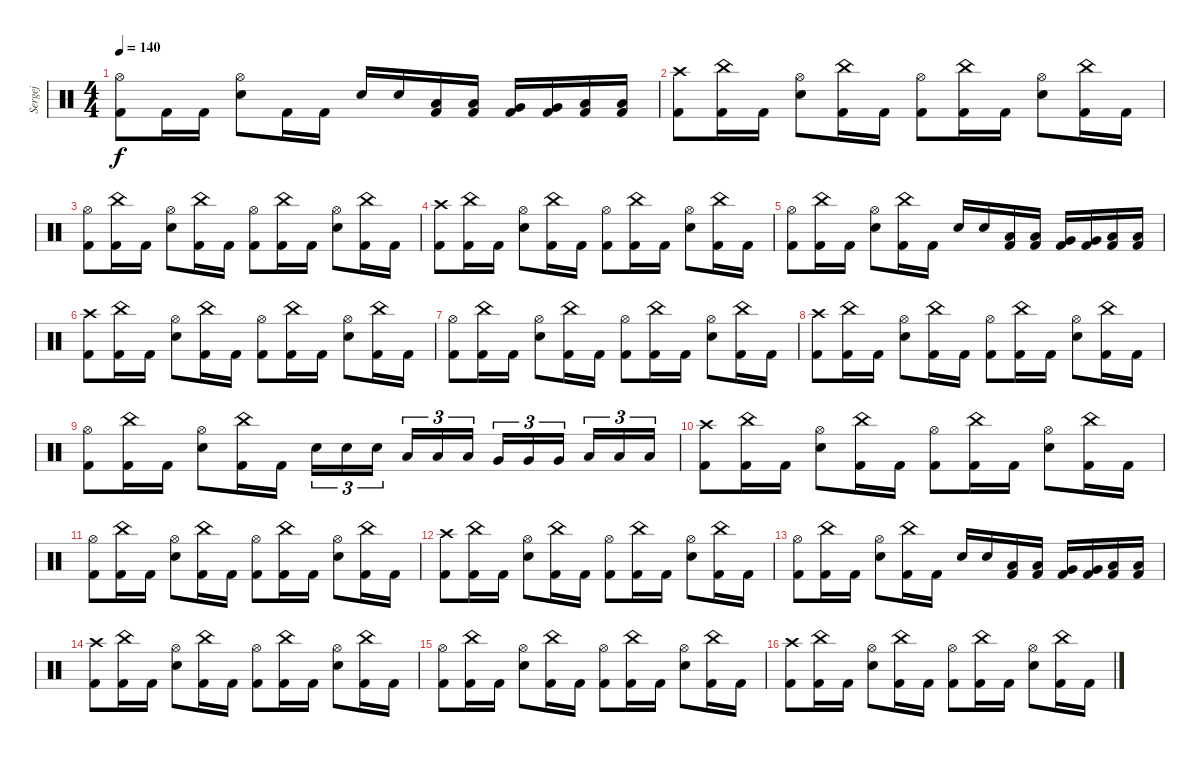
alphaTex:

\track ("Sergej" "Sergej") {instrument percussion}
\staff {score}
\articulation defaults
\ts (4 4)
\tempo 140
\clef neutral
\ks c
("Hi-Hat (open)" "Kick (hit) 2").8{dy f} "Kick (hit) 2".16 "Kick (hit) 2".16 ("Hi-Hat (open)" "Snare (hit) 2").8 "Kick (hit) 2".16 "Kick (hit) 2".16 "Snare (hit) 2".16 "Snare (hit) 2".16 ("Kick (hit) 2" "Low Tom (hit)").16 ("Kick (hit) 2" "Low Tom (hit)").16 ("Kick (hit) 2" "Very Low Tom (hit)").16 ("Kick (hit) 2" "Very Low Tom (hit)").16 ("Kick (hit) 2" "Low Floor Tom (hit)").16 ("Kick (hit) 2" "Low Floor Tom (hit)").16 |
("Crash high (hit)" "Kick (hit) 2").8 ("China (hit)" "Kick (hit) 2").16 "Kick (hit) 2".16 ("Hi-Hat (open)" "Snare (hit) 2").8 ("China (hit)" "Kick (hit) 2").16 "Kick (hit) 2".16 ("Hi-Hat (open)" "Kick (hit) 2").8 ("China (hit)" "Kick (hit) 2").16 "Kick (hit) 2".16 ("Hi-Hat (open)" "Snare (hit) 2").8 ("China (hit)" "Kick (hit) 2").16 "Kick (hit) 2".16 |
("Hi-Hat (open)" "Kick (hit) 2").8 ("China (hit)" "Kick (hit) 2").16 "Kick (hit) 2".16 ("Hi-Hat (open)" "Snare (hit) 2").8 ("China (hit)" "Kick (hit) 2").16 "Kick (hit) 2".16 ("Hi-Hat (open)" "Kick (hit) 2").8 ("China (hit)" "Kick (hit) 2").16 "Kick (hit) 2".16 ("Hi-Hat (open)" "Snare (hit) 2").8 ("China (hit)" "Kick (hit) 2").16 "Kick (hit) 2".16 |
("Crash high (hit)" "Kick (hit) 2").8 ("China (hit)" "Kick (hit) 2").16 "Kick (hit) 2".16 ("Hi-Hat (open)" "Snare (hit) 2").8 ("China (hit)" "Kick (hit) 2").16 "Kick (hit) 2".16 ("Hi-Hat (open)" "Kick (hit) 2").8 ("China (hit)" "Kick (hit) 2").16 "Kick (hit) 2".16 ("Hi-Hat (open)" "Snare (hit) 2").8 ("China (hit)" "Kick (hit) 2").16 "Kick (hit) 2".16 |
("Hi-Hat (open)" "Kick (hit) 2").8 ("China (hit)" "Kick (hit) 2").16 "Kick (hit) 2".16 ("Hi-Hat (open)" "Snare (hit) 2").8 ("China (hit)" "Kick (hit) 2").16 "Kick (hit) 2".16 "Snare (hit) 2".16 "Snare (hit) 2".16 ("Kick (hit) 2" "Low Tom (hit)").16 ("Kick (hit) 2" "Low Tom (hit)").16 ("Kick (hit) 2" "Very Low Tom (hit)").16 ("Kick (hit) 2" "Very Low Tom (hit)").16 ("Kick (hit) 2" "Low Floor Tom (hit)").16 ("Kick (hit) 2" "Low Floor Tom (hit)").16 |
("Crash high (hit)" "Kick (hit) 2").8 ("China (hit)" "Kick (hit) 2").16 "Kick (hit) 2".16 ("Hi-Hat (open)" "Snare (hit) 2").8 ("China (hit)" "Kick (hit) 2").16 "Kick (hit) 2".16 ("Hi-Hat (open)" "Kick (hit) 2").8 ("China (hit)" "Kick (hit) 2").16 "Kick (hit) 2".16 ("Hi-Hat (open)" "Snare (hit) 2").8 ("China (hit)" "Kick (hit) 2").16 "Kick (hit) 2".16 |
("Hi-Hat (open)" "Kick (hit) 2").8 ("China (hit)" "Kick (hit) 2").16 "Kick (hit) 2".16 ("Hi-Hat (open)" "Snare (hit) 2").8 ("China (hit)" "Kick (hit) 2").16 "Kick (hit) 2".16 ("Hi-Hat (open)" "Kick (hit) 2").8 ("China (hit)" "Kick (hit) 2").16 "Kick (hit) 2".16 ("Hi-Hat (open)" "Snare (hit) 2").8 ("China (hit)" "Kick (hit) 2").16 "Kick (hit) 2".16 |
("Crash high (hit)" "Kick (hit) 2").8 ("China (hit)" "Kick (hit) 2").16 "Kick (hit) 2".16 ("Hi-Hat (open)" "Snare (hit) 2").8 ("China (hit)" "Kick (hit) 2").16 "Kick (hit) 2".16 ("Hi-Hat (open)" "Kick (hit) 2").8 ("China (hit)" "Kick (hit) 2").16 "Kick (hit) 2".16 ("Hi-Hat (open)" "Snare (hit) 2").8 ("China (hit)" "Kick (hit) 2").16 "Kick (hit) 2".16 |
("Hi-Hat (open)" "Kick (hit) 2").8 ("China (hit)" "Kick (hit) 2").16 "Kick (hit) 2".16 ("Hi-Hat (open)" "Snare (hit) 2").8 ("China (hit)" "Kick (hit) 2").16 "Kick (hit) 2".16 "Snare (hit) 2".16{tu (3 2)} "Snare (hit) 2".16{tu (3 2)} "Snare (hit) 2".16{tu (3 2)} "Low Tom (hit)".16{tu (3 2)} "Low Tom (hit)".16{tu (3 2)} "Low Tom (hit)".16{tu (3 2)} "Very Low Tom (hit)".16{tu (3 2)} "Very Low Tom (hit)".16{tu (3 2)} "Very Low Tom (hit)".16{tu (3 2)} "Low Floor Tom (hit)".16{tu (3 2)} "Low Floor Tom (hit)".16{tu (3 2)} "Low Floor Tom (hit)".16{tu (3 2)} |
("Crash high (hit)" "Kick (hit) 2").8 ("China (hit)" "Kick (hit) 2").16 "Kick (hit) 2".16 ("Hi-Hat (open)" "Snare (hit) 2").8 ("China (hit)" "Kick (hit) 2").16 "Kick (hit) 2".16 ("Hi-Hat (open)" "Kick (hit) 2").8 ("China (hit)" "Kick (hit) 2").16 "Kick (hit) 2".16 ("Hi-Hat (open)" "Snare (hit) 2").8 ("China (hit)" "Kick (hit) 2").16 "Kick (hit) 2".16 |
("Hi-Hat (open)" "Kick (hit) 2").8 ("China (hit)" "Kick (hit) 2").16 "Kick (hit) 2".16 ("Hi-Hat (open)" "Snare (hit) 2").8 ("China (hit)" "Kick (hit) 2").16 "Kick (hit) 2".16 ("Hi-Hat (open)" "Kick (hit) 2").8 ("China (hit)" "Kick (hit) 2").16 "Kick (hit) 2".16 ("Hi-Hat (open)" "Snare (hit) 2").8 ("China (hit)" "Kick (hit) 2").16 "Kick (hit) 2".16 |
("Crash high (hit)" "Kick (hit) 2").8 ("China (hit)" "Kick (hit) 2").16 "Kick (hit) 2".16 ("Hi-Hat (open)" "Snare (hit) 2").8 ("China (hit)" "Kick (hit) 2").16 "Kick (hit) 2".16 ("Hi-Hat (open)" "Kick (hit) 2").8 ("China (hit)" "Kick (hit) 2").16 "Kick (hit) 2".16 ("Hi-Hat (open)" "Snare (hit) 2").8 ("China (hit)" "Kick (hit) 2").16 "Kick (hit) 2".16 |
("Hi-Hat (open)" "Kick (hit) 2").8 ("China (hit)" "Kick (hit) 2").16 "Kick (hit) 2".16 ("Hi-Hat (open)" "Snare (hit) 2").8 ("China (hit)" "Kick (hit) 2").16 "Kick (hit) 2".16 "Snare (hit) 2".16 "Snare (hit) 2".16 ("Kick (hit) 2" "Low Tom (hit)").16 ("Kick (hit) 2" "Low Tom (hit)").16 ("Kick (hit) 2" "Very Low Tom (hit)").16 ("Kick (hit) 2" "Very Low Tom (hit)").16 ("Kick (hit) 2" "Low Floor Tom (hit)").16 ("Kick (hit) 2" "Low Floor Tom (hit)").16 |
("Crash high (hit)" "Kick (hit) 2").8 ("China (hit)" "Kick (hit) 2").16 "Kick (hit) 2".16 ("Hi-Hat (open)" "Snare (hit) 2").8 ("China (hit)" "Kick (hit) 2").16 "Kick (hit) 2".16 ("Hi-Hat (open)" "Kick (hit) 2").8 ("China (hit)" "Kick (hit) 2").16 "Kick (hit) 2".16 ("Hi-Hat (open)" "Snare (hit) 2").8 ("China (hit)" "Kick (hit) 2").16 "Kick (hit) 2".16 |
("Hi-Hat (open)" "Kick (hit) 2").8 ("China (hit)" "Kick (hit) 2").16 "Kick (hit) 2".16 ("Hi-Hat (open)" "Snare (hit) 2").8 ("China (hit)" "Kick (hit) 2").16 "Kick (hit) 2".16 ("Hi-Hat (open)" "Kick (hit) 2").8 ("China (hit)" "Kick (hit) 2").16 "Kick (hit) 2".16 ("Hi-Hat (open)" "Snare (hit) 2").8 ("China (hit)" "Kick (hit) 2").16 "Kick (hit) 2".16 |
("Crash high (hit)" "Kick (hit) 2").8 ("China (hit)" "Kick (hit) 2").16 "Kick (hit) 2".16 ("Hi-Hat (open)" "Snare (hit) 2").8 ("China (hit)" "Kick (hit) 2").16 "Kick (hit) 2".16 ("Hi-Hat (open)" "Kick (hit) 2").8 ("China (hit)" "Kick (hit) 2").16 "Kick (hit) 2".16 ("Hi-Hat (open)" "Snare (hit) 2").8 ("China (hit)" "Kick (hit) 2").16 "Kick (hit) 2".16
